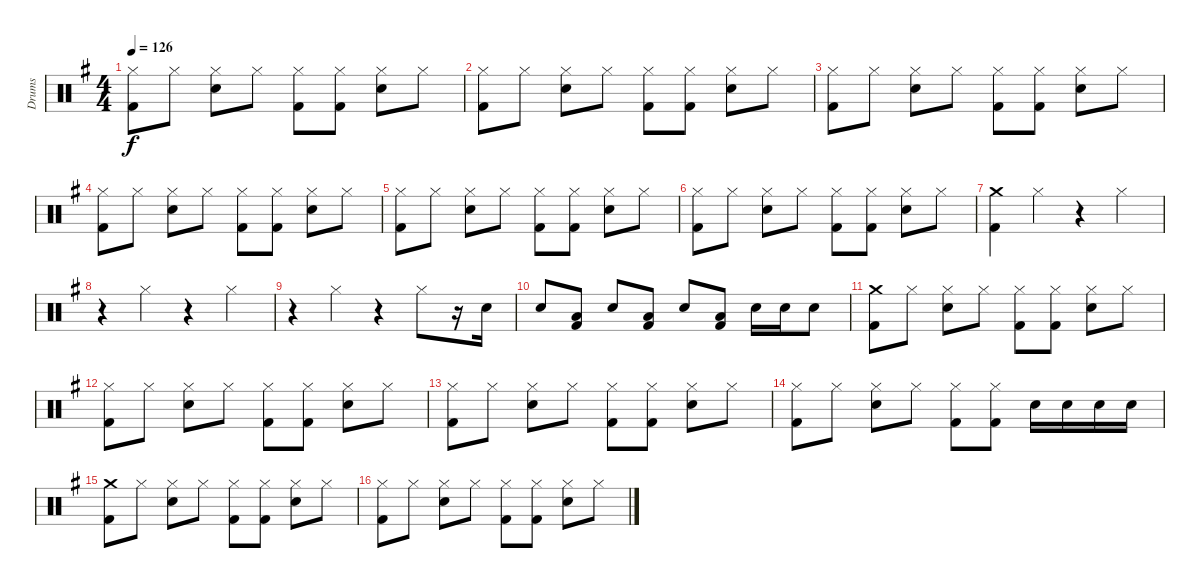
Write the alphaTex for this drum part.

\track ("Drums" "Drums") {instrument percussion}
\staff {score}
\articulation defaults
\ts (4 4)
\tempo 126
\clef neutral
\ks g
("Hi-Hat (closed)" "Kick (hit) 2").8{dy f} "Hi-Hat (closed)".8 ("Hi-Hat (closed)" "Snare (hit) 2").8 "Hi-Hat (closed)".8 ("Hi-Hat (closed)" "Kick (hit) 2").8 ("Hi-Hat (closed)" "Kick (hit) 2").8 ("Hi-Hat (closed)" "Snare (hit) 2").8 "Hi-Hat (closed)".8 |
("Hi-Hat (closed)" "Kick (hit) 2").8 "Hi-Hat (closed)".8 ("Hi-Hat (closed)" "Snare (hit) 2").8 "Hi-Hat (closed)".8 ("Hi-Hat (closed)" "Kick (hit) 2").8 ("Hi-Hat (closed)" "Kick (hit) 2").8 ("Hi-Hat (closed)" "Snare (hit) 2").8 "Hi-Hat (closed)".8 |
("Hi-Hat (closed)" "Kick (hit) 2").8 "Hi-Hat (closed)".8 ("Hi-Hat (closed)" "Snare (hit) 2").8 "Hi-Hat (closed)".8 ("Hi-Hat (closed)" "Kick (hit) 2").8 ("Hi-Hat (closed)" "Kick (hit) 2").8 ("Hi-Hat (closed)" "Snare (hit) 2").8 "Hi-Hat (closed)".8 |
("Hi-Hat (closed)" "Kick (hit) 2").8 "Hi-Hat (closed)".8 ("Hi-Hat (closed)" "Snare (hit) 2").8 "Hi-Hat (closed)".8 ("Hi-Hat (closed)" "Kick (hit) 2").8 ("Hi-Hat (closed)" "Kick (hit) 2").8 ("Hi-Hat (closed)" "Snare (hit) 2").8 "Hi-Hat (closed)".8 |
("Hi-Hat (closed)" "Kick (hit) 2").8 "Hi-Hat (closed)".8 ("Hi-Hat (closed)" "Snare (hit) 2").8 "Hi-Hat (closed)".8 ("Hi-Hat (closed)" "Kick (hit) 2").8 ("Hi-Hat (closed)" "Kick (hit) 2").8 ("Hi-Hat (closed)" "Snare (hit) 2").8 "Hi-Hat (closed)".8 |
("Hi-Hat (closed)" "Kick (hit) 2").8 "Hi-Hat (closed)".8 ("Hi-Hat (closed)" "Snare (hit) 2").8 "Hi-Hat (closed)".8 ("Hi-Hat (closed)" "Kick (hit) 2").8 ("Hi-Hat (closed)" "Kick (hit) 2").8 ("Hi-Hat (closed)" "Snare (hit) 2").8 "Hi-Hat (closed)".8 |
("Crash medium (hit)" "Kick (hit) 2").4 "Hi-Hat (closed)".4 r.4 "Hi-Hat (closed)".4 |
r.4 "Hi-Hat (closed)".4 r.4 "Hi-Hat (closed)".4 |
r.4 "Hi-Hat (closed)".4 r.4 "Hi-Hat (closed)".8 r.16 "Snare (hit) 2".16 |
"Snare (hit) 2".8 ("Low Tom (hit)" "Kick (hit) 2").8 "Snare (hit) 2".8 ("Low Tom (hit)" "Kick (hit) 2").8 "Snare (hit) 2".8 ("Low Tom (hit)" "Kick (hit) 2").8 "Snare (hit) 2".16 "Snare (hit) 2".16 "Snare (hit) 2".8 |
("Crash medium (hit)" "Kick (hit) 2").8 "Hi-Hat (closed)".8 ("Hi-Hat (closed)" "Snare (hit) 2").8 "Hi-Hat (closed)".8 ("Hi-Hat (closed)" "Kick (hit) 2").8 ("Hi-Hat (closed)" "Kick (hit) 2").8 ("Hi-Hat (closed)" "Snare (hit) 2").8 "Hi-Hat (closed)".8 |
("Hi-Hat (closed)" "Kick (hit) 2").8 "Hi-Hat (closed)".8 ("Hi-Hat (closed)" "Snare (hit) 2").8 "Hi-Hat (closed)".8 ("Hi-Hat (closed)" "Kick (hit) 2").8 ("Hi-Hat (closed)" "Kick (hit) 2").8 ("Hi-Hat (closed)" "Snare (hit) 2").8 "Hi-Hat (closed)".8 |
("Hi-Hat (closed)" "Kick (hit) 2").8 "Hi-Hat (closed)".8 ("Hi-Hat (closed)" "Snare (hit) 2").8 "Hi-Hat (closed)".8 ("Hi-Hat (closed)" "Kick (hit) 2").8 ("Hi-Hat (closed)" "Kick (hit) 2").8 ("Hi-Hat (closed)" "Snare (hit) 2").8 "Hi-Hat (closed)".8 |
("Hi-Hat (closed)" "Kick (hit) 2").8 "Hi-Hat (closed)".8 ("Hi-Hat (closed)" "Snare (hit) 2").8 "Hi-Hat (closed)".8 ("Hi-Hat (closed)" "Kick (hit) 2").8 ("Hi-Hat (closed)" "Kick (hit) 2").8 "Snare (hit) 2".16 "Snare (hit) 2".16 "Snare (hit) 2".16 "Snare (hit) 2".16 |
("Crash medium (hit)" "Kick (hit) 2").8 "Hi-Hat (closed)".8 ("Hi-Hat (closed)" "Snare (hit) 2").8 "Hi-Hat (closed)".8 ("Hi-Hat (closed)" "Kick (hit) 2").8 ("Hi-Hat (closed)" "Kick (hit) 2").8 ("Hi-Hat (closed)" "Snare (hit) 2").8 "Hi-Hat (closed)".8 |
("Hi-Hat (closed)" "Kick (hit) 2").8 "Hi-Hat (closed)".8 ("Hi-Hat (closed)" "Snare (hit) 2").8 "Hi-Hat (closed)".8 ("Hi-Hat (closed)" "Kick (hit) 2").8 ("Hi-Hat (closed)" "Kick (hit) 2").8 ("Hi-Hat (closed)" "Snare (hit) 2").8 "Hi-Hat (closed)".8
